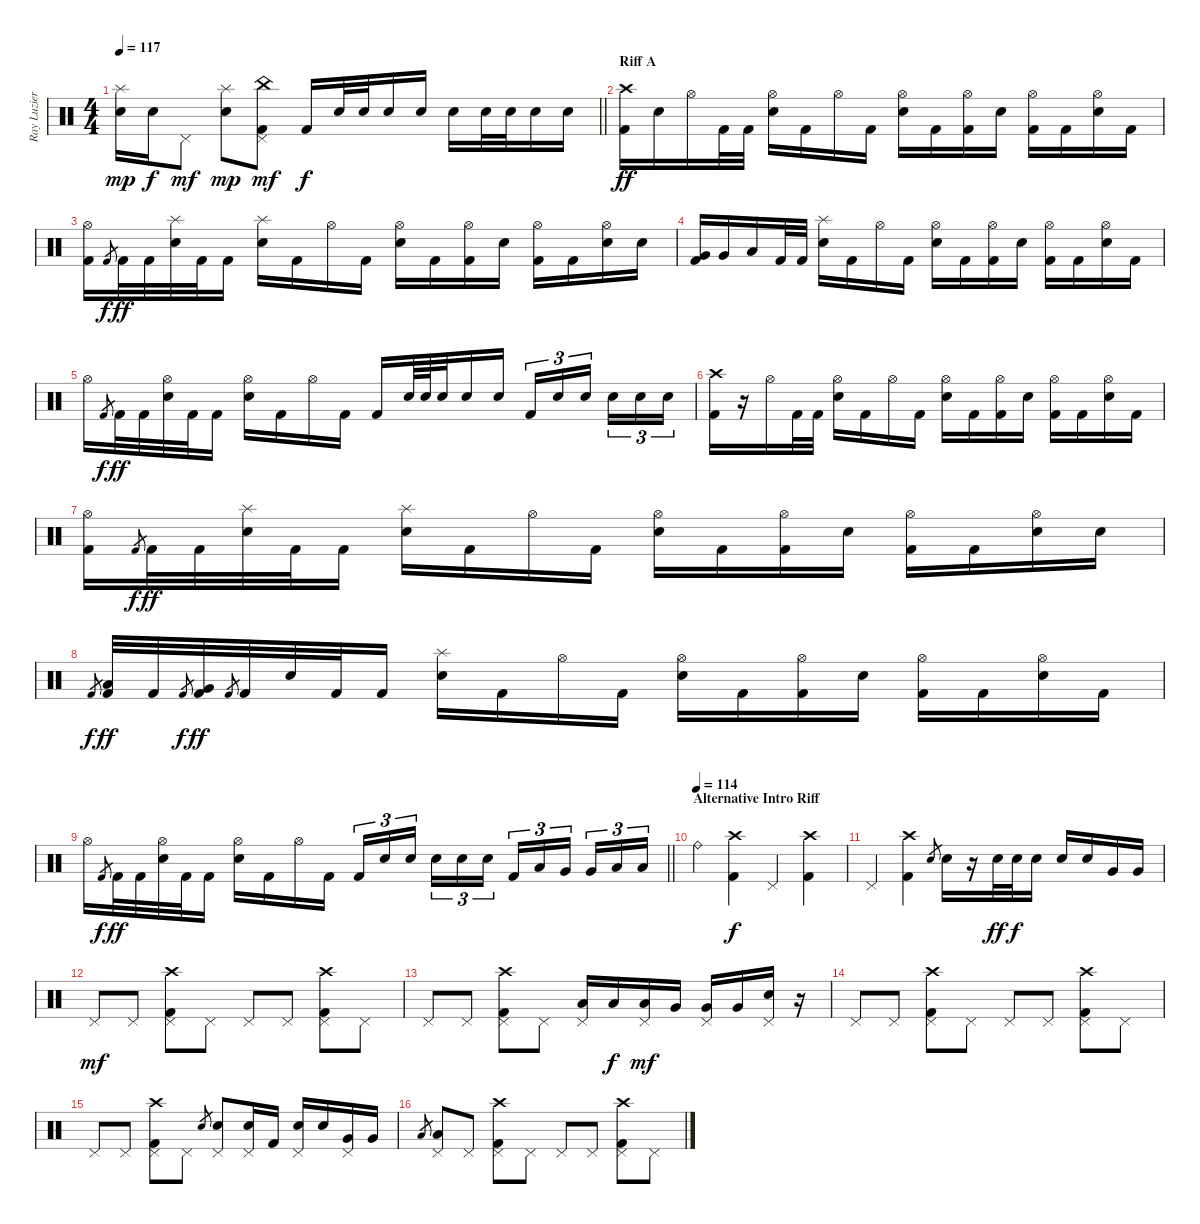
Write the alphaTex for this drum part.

\track ("Ray Luzier" "Ray Luzier") {instrument percussion}
\staff {score}
\articulation defaults
\ts (4 4)
\tempo 117
\clef neutral
\barLineRight lightlight
\ks c
("Splash (hit)" "Snare (hit) 2").16{dy mp} "Snare (hit) 2".16{dy f} "Pedal Hi-Hat (hit)".8{dy mf} ("Splash (hit)" "Snare (hit) 2").8{dy mp} ("China (hit)" "Pedal Hi-Hat (hit)" "Kick (hit) 2").8{dy mf} "Kick (hit) 2".16{dy f} "Snare (hit) 2".32 "Snare (hit) 2".32 "Snare (hit) 2".16 "Snare (hit) 2".16 "Snare (hit) 2".16 "Snare (hit) 2".32 "Snare (hit) 2".32 "Snare (hit) 2".16 "Snare (hit) 2".16 |
\section ("" "Riff A")
("Crash high (hit)" "Kick (hit) 2").16{dy ff} "Snare (hit) 2".16 "Hi-Hat (open)".16 "Kick (hit) 2".32 "Kick (hit) 2".32 ("Hi-Hat (open)" "Snare (hit) 2").16 "Kick (hit) 2".16 "Hi-Hat (open)".16 "Kick (hit) 2".16 ("Hi-Hat (open)" "Snare (hit) 2").16 "Kick (hit) 2".16 ("Hi-Hat (open)" "Kick (hit) 2").16 "Snare (hit) 2".16 ("Hi-Hat (open)" "Kick (hit) 2").16 "Kick (hit) 2".16 ("Hi-Hat (open)" "Snare (hit) 2").16 "Kick (hit) 2".16 |
("Hi-Hat (open)" "Kick (hit) 2").16 "Kick (hit) 2".8{gr dy f} "Kick (hit) 2".32{dy ff} "Kick (hit) 2".32 ("Splash (hit)" "Snare (hit) 2").32 "Kick (hit) 2".32 "Kick (hit) 2".16 ("Splash (hit)" "Snare (hit) 2").16 "Kick (hit) 2".16 "Hi-Hat (open)".16 "Kick (hit) 2".16 ("Hi-Hat (open)" "Snare (hit) 2").16 "Kick (hit) 2".16 ("Hi-Hat (open)" "Kick (hit) 2").16 "Snare (hit) 2".16 ("Hi-Hat (open)" "Kick (hit) 2").16 "Kick (hit) 2".16 ("Hi-Hat (open)" "Snare (hit) 2").16 "Snare (hit) 2".16 |
("Very Low Tom (hit)" "Kick (hit) 2").16 "Very Low Tom (hit)".16 "Low Floor Tom (hit)".16 "Kick (hit) 2".32 "Kick (hit) 2".32 ("Splash (hit)" "Snare (hit) 2").16 "Kick (hit) 2".16 "Hi-Hat (open)".16 "Kick (hit) 2".16 ("Hi-Hat (open)" "Snare (hit) 2").16 "Kick (hit) 2".16 ("Hi-Hat (open)" "Kick (hit) 2").16 "Snare (hit) 2".16 ("Hi-Hat (open)" "Kick (hit) 2").16 "Kick (hit) 2".16 ("Hi-Hat (open)" "Snare (hit) 2").16 "Kick (hit) 2".16 |
"Hi-Hat (open)".16 "Kick (hit) 2".8{gr dy f} "Kick (hit) 2".32{dy ff} "Kick (hit) 2".32 ("Hi-Hat (open)" "Snare (hit) 2").32 "Kick (hit) 2".32 "Kick (hit) 2".16 ("Hi-Hat (open)" "Snare (hit) 2").16 "Kick (hit) 2".16 "Hi-Hat (open)".16 "Kick (hit) 2".16 "Kick (hit) 2".16 "Snare (hit) 2".64 "Snare (hit) 2".64 "Snare (hit) 2".32 "Snare (hit) 2".16 "Snare (hit) 2".16 "Kick (hit) 2".16{tu (3 2)} "Snare (hit) 2".16{tu (3 2)} "Snare (hit) 2".16{tu (3 2) beam splitsecondary} "Snare (hit) 2".16{tu (3 2)} "Snare (hit) 2".16{tu (3 2)} "Snare (hit) 2".16{tu (3 2)} |
("Crash high (hit)" "Kick (hit) 2").16 r.16 "Hi-Hat (open)".16 "Kick (hit) 2".32 "Kick (hit) 2".32 ("Hi-Hat (open)" "Snare (hit) 2").16 "Kick (hit) 2".16 "Hi-Hat (open)".16 "Kick (hit) 2".16 ("Hi-Hat (open)" "Snare (hit) 2").16 "Kick (hit) 2".16 ("Hi-Hat (open)" "Kick (hit) 2").16 "Snare (hit) 2".16 ("Hi-Hat (open)" "Kick (hit) 2").16 "Kick (hit) 2".16 ("Hi-Hat (open)" "Snare (hit) 2").16 "Kick (hit) 2".16 |
("Hi-Hat (open)" "Kick (hit) 2").16 "Kick (hit) 2".8{gr dy f} "Kick (hit) 2".32{dy ff} "Kick (hit) 2".32 ("Splash (hit)" "Snare (hit) 2").32 "Kick (hit) 2".32 "Kick (hit) 2".16 ("Splash (hit)" "Snare (hit) 2").16 "Kick (hit) 2".16 "Hi-Hat (open)".16 "Kick (hit) 2".16 ("Hi-Hat (open)" "Snare (hit) 2").16 "Kick (hit) 2".16 ("Hi-Hat (open)" "Kick (hit) 2").16 "Snare (hit) 2".16 ("Hi-Hat (open)" "Kick (hit) 2").16 "Kick (hit) 2".16 ("Hi-Hat (open)" "Snare (hit) 2").16 "Snare (hit) 2".16 |
"Kick (hit) 2".8{gr dy f} ("Low Tom (hit)" "Kick (hit) 2").32{dy ff} "Kick (hit) 2".32 "Kick (hit) 2".8{gr dy f} ("Very Low Tom (hit)" "Kick (hit) 2").32{dy ff} "Kick (hit) 2".8{gr} "Kick (hit) 2".32 "Snare (hit) 2".32 "Kick (hit) 2".32 "Kick (hit) 2".16 ("Splash (hit)" "Snare (hit) 2").16 "Kick (hit) 2".16 "Hi-Hat (open)".16 "Kick (hit) 2".16 ("Hi-Hat (open)" "Snare (hit) 2").16 "Kick (hit) 2".16 ("Hi-Hat (open)" "Kick (hit) 2").16 "Snare (hit) 2".16 ("Hi-Hat (open)" "Kick (hit) 2").16 "Kick (hit) 2".16 ("Hi-Hat (open)" "Snare (hit) 2").16 "Kick (hit) 2".16 |
\barLineRight lightlight "Hi-Hat (open)".16 "Kick (hit) 2".8{gr dy f} "Kick (hit) 2".32{dy ff} "Kick (hit) 2".32
("Hi-Hat (open)" "Snare (hit) 2").32 "Kick (hit) 2".32 "Kick (hit) 2".16 ("Hi-Hat (open)" "Snare (hit) 2").16 "Kick (hit) 2".16 "Hi-Hat (open)".16 "Kick (hit) 2".16 "Kick (hit) 2".16{tu (3 2)} "Snare (hit) 2".16{tu (3 2)} "Snare (hit) 2".16{tu (3 2) beam splitsecondary} "Snare (hit) 2".16{tu (3 2)} "Snare (hit) 2".16{tu (3 2)} "Snare (hit) 2".16{tu (3 2)} "Kick (hit) 2".16{tu (3 2)} "Low Tom (hit)".16{tu (3 2)} "Very Low Tom (hit)".16{tu (3 2) beam splitsecondary} "Very Low Tom (hit)".16{tu (3 2)} "Low Floor Tom (hit)".16{tu (3 2)} "Low Floor Tom (hit)".16{tu (3 2)} |
\section ("" "Alternative Intro Riff")
\tempo (114)
"Ride (bell)".4 ("Crash high (hit)" "Kick (hit) 2").4{dy f} "Pedal Hi-Hat (hit)".4 ("Crash high (hit)" "Kick (hit) 2").4 |
"Pedal Hi-Hat (hit)".4 ("Crash high (hit)" "Kick (hit) 2").4 "Snare (hit) 2".8{gr} "Snare (hit) 2".16 r.16 "Snare (hit) 2".32{dy ff} "Snare (hit) 2".32{dy f} "Snare (hit) 2".16 "Snare (hit) 2".16 "Snare (hit) 2".16 "Very Low Tom (hit)".16 "Very Low Tom (hit)".16 |
"Pedal Hi-Hat (hit)".8{dy mf} "Pedal Hi-Hat (hit)".8 ("Crash high (hit)" "Pedal Hi-Hat (hit)" "Kick (hit) 2").8 "Pedal Hi-Hat (hit)".8 "Pedal Hi-Hat (hit)".8 "Pedal Hi-Hat (hit)".8 ("Crash high (hit)" "Pedal Hi-Hat (hit)" "Kick (hit) 2").8 "Pedal Hi-Hat (hit)".8 |
"Pedal Hi-Hat (hit)".8 "Pedal Hi-Hat (hit)".8 ("Crash high (hit)" "Pedal Hi-Hat (hit)" "Kick (hit) 2").8 "Pedal Hi-Hat (hit)".8 ("Low Tom (hit)" "Pedal Hi-Hat (hit)").16 "Low Tom (hit)".16{dy f} ("Low Tom (hit)" "Pedal Hi-Hat (hit)").16{dy mf} "Very Low Tom (hit)".16 ("Very Low Tom (hit)" "Pedal Hi-Hat (hit)").16 "Very Low Tom (hit)".16 ("Pedal Hi-Hat (hit)" "Snare (hit) 2").16 r.16 |
"Pedal Hi-Hat (hit)".8 "Pedal Hi-Hat (hit)".8 ("Crash high (hit)" "Pedal Hi-Hat (hit)" "Kick (hit) 2").8 "Pedal Hi-Hat (hit)".8 "Pedal Hi-Hat (hit)".8 "Pedal Hi-Hat (hit)".8 ("Crash high (hit)" "Pedal Hi-Hat (hit)" "Kick (hit) 2").8 "Pedal Hi-Hat (hit)".8 |
"Pedal Hi-Hat (hit)".8 "Pedal Hi-Hat (hit)".8 ("Crash high (hit)" "Pedal Hi-Hat (hit)" "Kick (hit) 2").8 "Pedal Hi-Hat (hit)".8 "Snare (hit) 2".8{gr} ("Pedal Hi-Hat (hit)" "Snare (hit) 2").8 ("Pedal Hi-Hat (hit)" "Snare (hit) 2").16 "Kick (hit) 2".16 ("Pedal Hi-Hat (hit)" "Snare (hit) 2").16 "Snare (hit) 2".16 ("Very Low Tom (hit)" "Pedal Hi-Hat (hit)").16 "Very Low Tom (hit)".16 |
"Low Floor Tom (hit)".8{gr} ("Low Floor Tom (hit)" "Pedal Hi-Hat (hit)").8 "Pedal Hi-Hat (hit)".8 ("Crash high (hit)" "Pedal Hi-Hat (hit)" "Kick (hit) 2").8 "Pedal Hi-Hat (hit)".8 "Pedal Hi-Hat (hit)".8 "Pedal Hi-Hat (hit)".8 ("Crash high (hit)" "Pedal Hi-Hat (hit)" "Kick (hit) 2").8 "Pedal Hi-Hat (hit)".8
